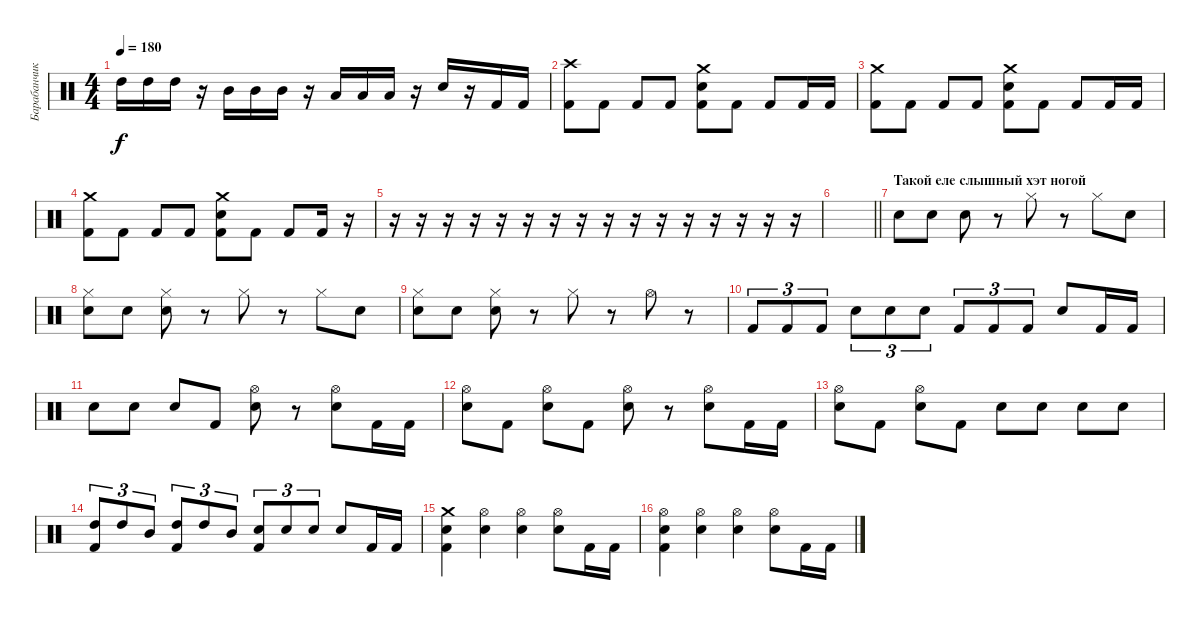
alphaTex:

\track ("Барабанчики" "Барабанчик") {instrument percussion}
\staff {score}
\articulation defaults
\ts (4 4)
\tempo 180
\clef neutral
\ks c "High Tom (hit)".16{dy f} "High Tom (hit)".16 "High Tom (hit)".16
r.16 "Mid Tom (hit)".16 "Mid Tom (hit)".16 "Mid Tom (hit)".16 r.16 "Low Tom (hit)".16 "Low Tom (hit)".16 "Low Tom (hit)".16 r.16 "Electric Snare (hit)".16 r.16 "Kick (hit) 2".16 "Kick (hit) 2".16 |
("Crash high (hit)" "Kick (hit) 2").8 "Kick (hit) 2".8 "Kick (hit) 2".8 "Kick (hit) 2".8 ("Crash medium (hit)" "Electric Snare (hit)" "Kick (hit) 2").8 "Kick (hit) 2".8 "Kick (hit) 2".8 "Kick (hit) 2".16 "Kick (hit) 2".16 |
("Crash medium (hit)" "Kick (hit) 2").8 "Kick (hit) 2".8 "Kick (hit) 2".8 "Kick (hit) 2".8 ("Crash medium (hit)" "Electric Snare (hit)" "Kick (hit) 2").8 "Kick (hit) 2".8 "Kick (hit) 2".8 "Kick (hit) 2".16 "Kick (hit) 2".16 |
("Crash medium (hit)" "Kick (hit) 2").8 "Kick (hit) 2".8 "Kick (hit) 2".8 "Kick (hit) 2".8 ("Crash medium (hit)" "Electric Snare (hit)" "Kick (hit) 2").8 "Kick (hit) 2".8 "Kick (hit) 2".8 "Kick (hit) 2".16 r.16 |
r.16 r.16 r.16 r.16 r.16 r.16 r.16 r.16 r.16 r.16 r.16 r.16 r.16 r.16 r.16 r.16 |
\barLineRight lightlight
|
\section ("" "Такой еле слышный хэт ногой")
"Electric Snare (hit)".8 "Electric Snare (hit)".8 "Electric Snare (hit)".8 r.8 "Hi-Hat (closed)".8 r.8 "Hi-Hat (closed)".8 "Electric Snare (hit)".8 |
("Hi-Hat (closed)" "Electric Snare (hit)").8 "Electric Snare (hit)".8 ("Hi-Hat (closed)" "Electric Snare (hit)").8 r.8 "Hi-Hat (closed)".8 r.8 "Hi-Hat (closed)".8 "Electric Snare (hit)".8 |
("Hi-Hat (closed)" "Electric Snare (hit)").8 "Electric Snare (hit)".8 ("Hi-Hat (closed)" "Electric Snare (hit)").8 r.8 "Hi-Hat (closed)".8 r.8 "Hi-Hat (open)".8 r.8 |
"Kick (hit) 2".8{tu (3 2)} "Kick (hit) 2".8{tu (3 2)} "Kick (hit) 2".8{tu (3 2)} "Electric Snare (hit)".8{tu (3 2)} "Electric Snare (hit)".8{tu (3 2)} "Electric Snare (hit)".8{tu (3 2)} "Kick (hit) 2".8{tu (3 2)} "Kick (hit) 2".8{tu (3 2)} "Kick (hit) 2".8{tu (3 2)} "Electric Snare (hit)".8 "Kick (hit) 2".16 "Kick (hit) 2".16 |
"Electric Snare (hit)".8 "Electric Snare (hit)".8 "Electric Snare (hit)".8 "Kick (hit) 2".8 ("Hi-Hat (open)" "Electric Snare (hit)").8 r.8 ("Hi-Hat (open)" "Electric Snare (hit)").8 "Kick (hit) 2".16 "Kick (hit) 2".16 |
("Hi-Hat (open)" "Electric Snare (hit)").8 "Kick (hit) 2".8 ("Hi-Hat (open)" "Electric Snare (hit)").8 "Kick (hit) 2".8 ("Hi-Hat (open)" "Electric Snare (hit)").8 r.8 ("Hi-Hat (open)" "Electric Snare (hit)").8 "Kick (hit) 2".16 "Kick (hit) 2".16 |
("Hi-Hat (open)" "Electric Snare (hit)").8 "Kick (hit) 2".8 ("Hi-Hat (open)" "Electric Snare (hit)").8 "Kick (hit) 2".8 "Electric Snare (hit)".8 "Electric Snare (hit)".8 "Electric Snare (hit)".8 "Electric Snare (hit)".8 |
("Kick (hit) 2" "High Tom (hit)").8{tu (3 2)} "High Tom (hit)".8{tu (3 2)} "Mid Tom (hit)".8{tu (3 2)} ("Kick (hit) 2" "High Tom (hit)").8{tu (3 2)} "High Tom (hit)".8{tu (3 2)} "Mid Tom (hit)".8{tu (3 2)} ("Kick (hit) 2" "Electric Snare (hit)").8{tu (3 2)} "Electric Snare (hit)".8{tu (3 2)} "Electric Snare (hit)".8{tu (3 2)} "Electric Snare (hit)".8 "Kick (hit) 2".16 "Kick (hit) 2".16 |
("Crash medium (hit)" "Electric Snare (hit)" "Kick (hit) 2").4 ("Hi-Hat (open)" "Electric Snare (hit)").4 ("Hi-Hat (open)" "Electric Snare (hit)").4 ("Hi-Hat (open)" "Electric Snare (hit)").8 "Kick (hit) 2".16 "Kick (hit) 2".16 |
("Hi-Hat (open)" "Electric Snare (hit)" "Kick (hit) 2").4 ("Hi-Hat (open)" "Electric Snare (hit)").4 ("Hi-Hat (open)" "Electric Snare (hit)").4 ("Hi-Hat (open)" "Electric Snare (hit)").8 "Kick (hit) 2".16 "Kick (hit) 2".16
